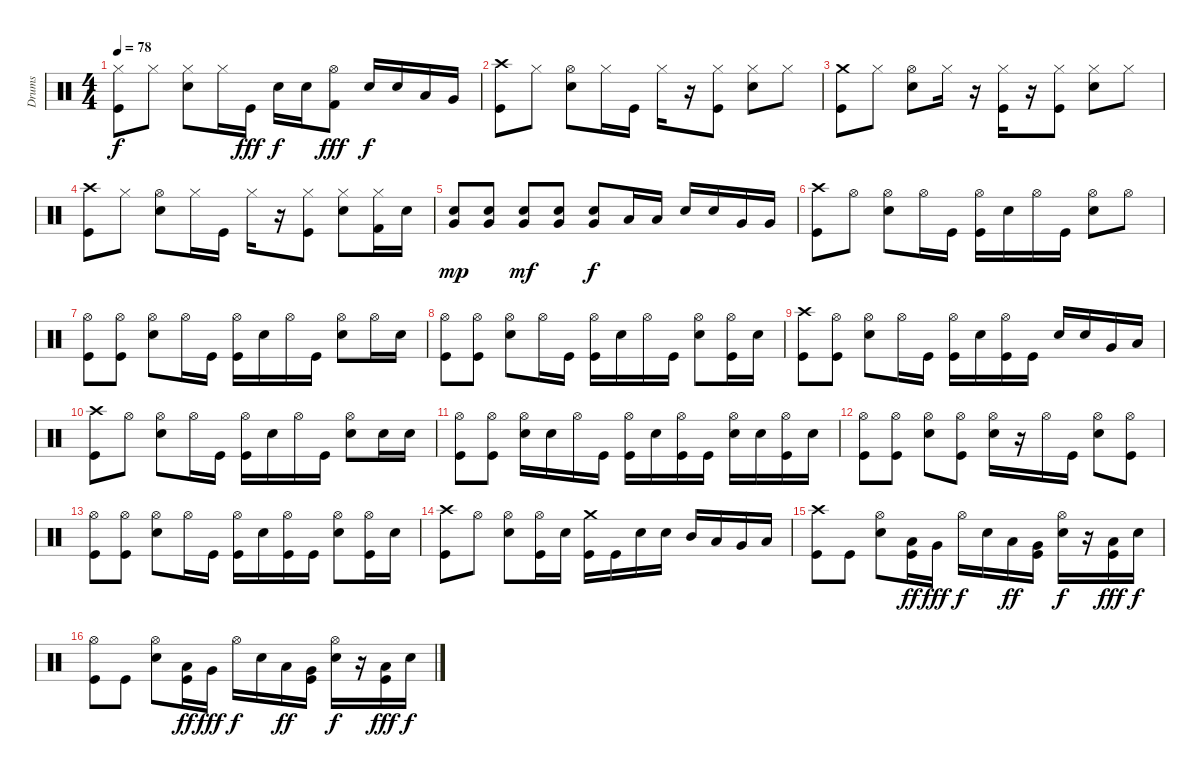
\track ("Drums" "Drums") {instrument percussion}
\staff {score}
\articulation defaults
\ts (4 4)
\tempo 78
\clef neutral
\ks c
("Hi-Hat (closed)" "Kick (hit)").8{dy f} "Hi-Hat (closed)".8 ("Hi-Hat (closed)" "Electric Snare (hit)").8 "Hi-Hat (closed)".16 "Kick (hit)".16{dy fff} "Electric Snare (hit)".16{dy f} "Electric Snare (hit)".16 ("Hi-Hat (open)" "Kick (hit) 2").8{dy fff} "Electric Snare (hit)".16{dy f} "Electric Snare (hit)".16 "Low Tom (hit)".16 "Very Low Tom (hit)".16 |
("Crash high (hit)" "Kick (hit)").8 "Hi-Hat (closed)".8 ("Hi-Hat (open)" "Electric Snare (hit)").8 "Hi-Hat (closed)".16 "Kick (hit)".16 "Hi-Hat (closed)".16 r.16 ("Hi-Hat (closed)" "Kick (hit)").8 ("Hi-Hat (closed)" "Electric Snare (hit)").8 "Hi-Hat (closed)".8 |
("Crash medium (hit)" "Kick (hit)").8 "Hi-Hat (closed)".8 ("Hi-Hat (open)" "Electric Snare (hit)").8 "Hi-Hat (closed)".16 r.16 ("Hi-Hat (closed)" "Kick (hit)").16 r.16 ("Hi-Hat (closed)" "Kick (hit)").8 ("Hi-Hat (closed)" "Electric Snare (hit)").8 "Hi-Hat (closed)".8 |
("Crash high (hit)" "Kick (hit)").8 "Hi-Hat (closed)".8 ("Hi-Hat (open)" "Electric Snare (hit)").8 "Hi-Hat (closed)".16 "Kick (hit)".16 "Hi-Hat (closed)".16 r.16 ("Hi-Hat (closed)" "Kick (hit)").8 ("Hi-Hat (closed)" "Electric Snare (hit)").8 ("Hi-Hat (closed)" "Kick (hit) 2").16 "Electric Snare (hit)".16 |
("Electric Snare (hit)" "Very Low Tom (hit)").8{dy mp} ("Electric Snare (hit)" "Very Low Tom (hit)").8 ("Electric Snare (hit)" "Very Low Tom (hit)").8{dy mf} ("Electric Snare (hit)" "Very Low Tom (hit)").8 ("Electric Snare (hit)" "Very Low Tom (hit)").8{dy f} "Low Tom (hit)".16 "Low Tom (hit)".16 "Electric Snare (hit)".16 "Electric Snare (hit)".16 "Very Low Tom (hit)".16 "Very Low Tom (hit)".16 |
("Crash high (hit)" "Kick (hit)").8 "Hi-Hat (open)".8 ("Hi-Hat (open)" "Electric Snare (hit)").8 "Hi-Hat (open)".16 "Kick (hit)".16 ("Hi-Hat (open)" "Kick (hit)").16 "Electric Snare (hit)".16 "Hi-Hat (open)".16 "Kick (hit)".16 ("Hi-Hat (open)" "Electric Snare (hit)").8 "Hi-Hat (open)".8 |
("Hi-Hat (open)" "Kick (hit)").8 ("Hi-Hat (open)" "Kick (hit)").8 ("Hi-Hat (open)" "Electric Snare (hit)").8 "Hi-Hat (open)".16 "Kick (hit)".16 ("Hi-Hat (open)" "Kick (hit)").16 "Electric Snare (hit)".16 "Hi-Hat (open)".16 "Kick (hit)".16 ("Hi-Hat (open)" "Electric Snare (hit)").8 "Hi-Hat (open)".16 "Electric Snare (hit)".16 |
("Hi-Hat (open)" "Kick (hit)").8 ("Hi-Hat (open)" "Kick (hit)").8 ("Hi-Hat (open)" "Electric Snare (hit)").8 "Hi-Hat (open)".16 "Kick (hit)".16 ("Hi-Hat (open)" "Kick (hit)").16 "Electric Snare (hit)".16 "Hi-Hat (open)".16 "Kick (hit)".16 ("Hi-Hat (open)" "Electric Snare (hit)").8 ("Hi-Hat (open)" "Kick (hit)").16 "Electric Snare (hit)".16 |
("Crash high (hit)" "Kick (hit)").8 ("Hi-Hat (open)" "Kick (hit)").8 ("Hi-Hat (open)" "Electric Snare (hit)").8 "Hi-Hat (open)".16 "Kick (hit)".16 ("Hi-Hat (open)" "Kick (hit)").16 "Electric Snare (hit)".16 ("Hi-Hat (open)" "Kick (hit)").16 "Kick (hit)".16 "Electric Snare (hit)".16 "Electric Snare (hit)".16 "Very Low Tom (hit)".16 "Low Floor Tom (hit)".16 |
("Crash high (hit)" "Kick (hit)").8 "Hi-Hat (open)".8 ("Hi-Hat (open)" "Electric Snare (hit)").8 "Hi-Hat (open)".16 "Kick (hit)".16 ("Hi-Hat (open)" "Kick (hit)").16 "Electric Snare (hit)".16 "Hi-Hat (open)".16 "Kick (hit)".16 ("Hi-Hat (open)" "Electric Snare (hit)").8 "Electric Snare (hit)".16 "Electric Snare (hit)".16 |
("Hi-Hat (open)" "Kick (hit)").8 ("Hi-Hat (open)" "Kick (hit)").8 ("Hi-Hat (open)" "Electric Snare (hit)").16 "Electric Snare (hit)".16 "Hi-Hat (open)".16 "Kick (hit)".16 ("Hi-Hat (open)" "Kick (hit)").16 "Electric Snare (hit)".16 ("Hi-Hat (open)" "Kick (hit)").16 "Kick (hit)".16 ("Hi-Hat (open)" "Electric Snare (hit)").16 "Electric Snare (hit)".16 ("Hi-Hat (open)" "Kick (hit)").16 "Electric Snare (hit)".16 |
("Hi-Hat (open)" "Kick (hit)").8 ("Hi-Hat (open)" "Kick (hit)").8 ("Hi-Hat (open)" "Electric Snare (hit)").8 ("Hi-Hat (open)" "Kick (hit)").8 ("Hi-Hat (open)" "Electric Snare (hit)").16 r.16 "Hi-Hat (open)".16 "Kick (hit)".16 ("Hi-Hat (open)" "Electric Snare (hit)").8 ("Hi-Hat (open)" "Kick (hit)").8 |
("Hi-Hat (open)" "Kick (hit)").8 ("Hi-Hat (open)" "Kick (hit)").8 ("Hi-Hat (open)" "Electric Snare (hit)").8 "Hi-Hat (open)".16 "Kick (hit)".16 ("Hi-Hat (open)" "Kick (hit)").16 "Electric Snare (hit)".16 ("Hi-Hat (open)" "Kick (hit)").16 "Kick (hit)".16 ("Hi-Hat (open)" "Electric Snare (hit)").8 ("Hi-Hat (open)" "Kick (hit)").16 "Electric Snare (hit)".16 |
("Crash high (hit)" "Kick (hit)").8 "Hi-Hat (open)".8 ("Hi-Hat (open)" "Electric Snare (hit)").8 ("Hi-Hat (open)" "Kick (hit)").16 "Electric Snare (hit)".16 ("Crash medium (hit)" "Kick (hit)").16 "Kick (hit)".16 "Electric Snare (hit)".16 "Electric Snare (hit)".16 "Mid Tom (hit)".16 "Low Tom (hit)".16 "Very Low Tom (hit)".16 "Low Floor Tom (hit)".16 |
("Crash high (hit)" "Kick (hit)").8 "Kick (hit)".8 ("Hi-Hat (open)" "Electric Snare (hit)").8 ("Low Tom (hit)" "Kick (hit)").16{dy ff} "Very Low Tom (hit)".16{dy fff} "Hi-Hat (open)".16{dy f} "Electric Snare (hit)".16 "Low Tom (hit)".16{dy ff} ("Very Low Tom (hit)" "Kick (hit)").16 ("Hi-Hat (open)" "Electric Snare (hit)").16{dy f} r.16 ("Low Floor Tom (hit)" "Kick (hit)").16{dy fff} "Electric Snare (hit)".16{dy f} |
("Hi-Hat (open)" "Kick (hit)").8 "Kick (hit)".8 ("Hi-Hat (open)" "Electric Snare (hit)").8 ("Low Tom (hit)" "Kick (hit)").16{dy ff} "Very Low Tom (hit)".16{dy fff} "Hi-Hat (open)".16{dy f} "Electric Snare (hit)".16 "Low Tom (hit)".16{dy ff} ("Very Low Tom (hit)" "Kick (hit)").16 ("Hi-Hat (open)" "Electric Snare (hit)").16{dy f} r.16 ("Low Floor Tom (hit)" "Kick (hit)").16{dy fff} "Electric Snare (hit)".16{dy f}
